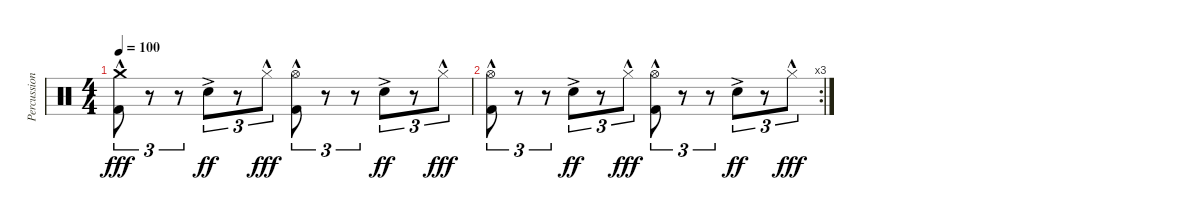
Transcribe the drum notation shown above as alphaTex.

\track ("Percussion" "Percussion") {instrument percussion}
\staff {score}
\articulation defaults
\ts (4 4)
\tempo 100
\clef neutral
\ks c
("Crash medium (hit)"{hac} "Kick (hit) 2"{hac}).8{tu (3 2) dy fff} r.8{tu (3 2)} r.8{tu (3 2)} "Snare (hit) 2"{ac}.8{tu (3 2) dy ff} r.8{tu (3 2)} "Hi-Hat (closed)"{hac}.8{tu (3 2) dy fff} ("Hi-Hat (open)"{hac} "Kick (hit) 2"{hac}).8{tu (3 2)} r.8{tu (3 2)} r.8{tu (3 2)} "Snare (hit) 2"{ac}.8{tu (3 2) dy ff} r.8{tu (3 2)} "Hi-Hat (closed)"{hac}.8{tu (3 2) dy fff} |
\rc 3
("Hi-Hat (open)"{hac} "Kick (hit) 2"{hac}).8{tu (3 2)} r.8{tu (3 2)} r.8{tu (3 2)} "Snare (hit) 2"{ac}.8{tu (3 2) dy ff} r.8{tu (3 2)} "Hi-Hat (closed)"{hac}.8{tu (3 2) dy fff} ("Hi-Hat (open)"{hac} "Kick (hit) 2"{hac}).8{tu (3 2)} r.8{tu (3 2)} r.8{tu (3 2)} "Snare (hit) 2"{ac}.8{tu (3 2) dy ff} r.8{tu (3 2)} "Hi-Hat (closed)"{hac}.8{tu (3 2) dy fff}
